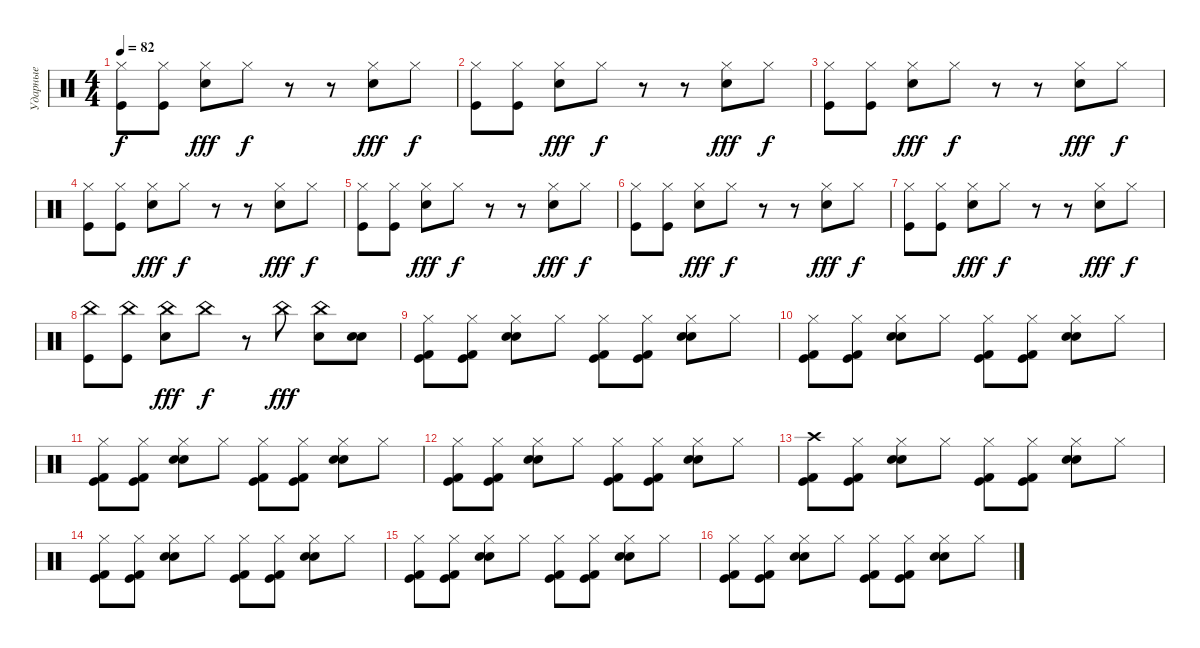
\track ("Ударные" "Ударные") {instrument percussion}
\staff {score}
\articulation defaults
\ts (4 4)
\tempo 82
\clef neutral
\ks c
("Hi-Hat (closed)" "Kick (hit)").8{dy f} ("Hi-Hat (closed)" "Kick (hit)").8 ("Hi-Hat (closed)" "Hand Clap (hit)").8{dy fff} "Hi-Hat (closed)".8{dy f} r.8 r.8 ("Hi-Hat (closed)" "Hand Clap (hit)").8{dy fff} "Hi-Hat (closed)".8{dy f} |
("Hi-Hat (closed)" "Kick (hit)").8 ("Hi-Hat (closed)" "Kick (hit)").8 ("Hi-Hat (closed)" "Hand Clap (hit)").8{dy fff} "Hi-Hat (closed)".8{dy f} r.8 r.8 ("Hi-Hat (closed)" "Hand Clap (hit)").8{dy fff} "Hi-Hat (closed)".8{dy f} |
("Hi-Hat (closed)" "Kick (hit)").8 ("Hi-Hat (closed)" "Kick (hit)").8 ("Hi-Hat (closed)" "Hand Clap (hit)").8{dy fff} "Hi-Hat (closed)".8{dy f} r.8 r.8 ("Hi-Hat (closed)" "Hand Clap (hit)").8{dy fff} "Hi-Hat (closed)".8{dy f} |
("Hi-Hat (closed)" "Kick (hit)").8 ("Hi-Hat (closed)" "Kick (hit)").8 ("Hi-Hat (closed)" "Hand Clap (hit)").8{dy fff} "Hi-Hat (closed)".8{dy f} r.8 r.8 ("Hi-Hat (closed)" "Hand Clap (hit)").8{dy fff} "Hi-Hat (closed)".8{dy f} |
("Hi-Hat (closed)" "Kick (hit)").8 ("Hi-Hat (closed)" "Kick (hit)").8 ("Hi-Hat (closed)" "Hand Clap (hit)").8{dy fff} "Hi-Hat (closed)".8{dy f} r.8 r.8 ("Hi-Hat (closed)" "Hand Clap (hit)").8{dy fff} "Hi-Hat (closed)".8{dy f} |
("Hi-Hat (closed)" "Kick (hit)").8 ("Hi-Hat (closed)" "Kick (hit)").8 ("Hi-Hat (closed)" "Hand Clap (hit)").8{dy fff} "Hi-Hat (closed)".8{dy f} r.8 r.8 ("Hi-Hat (closed)" "Hand Clap (hit)").8{dy fff} "Hi-Hat (closed)".8{dy f} |
("Hi-Hat (closed)" "Kick (hit)").8 ("Hi-Hat (closed)" "Kick (hit)").8 ("Hi-Hat (closed)" "Hand Clap (hit)").8{dy fff} "Hi-Hat (closed)".8{dy f} r.8 r.8 ("Hi-Hat (closed)" "Hand Clap (hit)").8{dy fff} "Hi-Hat (closed)".8{dy f} |
("China (hit)" "Kick (hit)").8 ("China (hit)" "Kick (hit)").8 ("China (hit)" "Hand Clap (hit)").8{dy fff} "China (hit)".8{dy f} r.8 "China (hit)".8{dy fff} ("China (hit)" "Hand Clap (hit)").8 ("Electric Snare (hit)" "Snare (hit) 2").8 |
("Hi-Hat (closed)" "Kick (hit) 2" "Kick (hit)").8 ("Hi-Hat (closed)" "Kick (hit) 2" "Kick (hit)").8 ("Hi-Hat (closed)" "Electric Snare (hit)" "Snare (hit) 2").8 "Hi-Hat (closed)".8 ("Hi-Hat (closed)" "Kick (hit) 2" "Kick (hit)").8 ("Hi-Hat (closed)" "Kick (hit) 2" "Kick (hit)").8 ("Hi-Hat (closed)" "Electric Snare (hit)" "Snare (hit) 2").8 "Hi-Hat (closed)".8 |
("Hi-Hat (closed)" "Kick (hit) 2" "Kick (hit)").8 ("Hi-Hat (closed)" "Kick (hit) 2" "Kick (hit)").8 ("Hi-Hat (closed)" "Electric Snare (hit)" "Snare (hit) 2").8 "Hi-Hat (closed)".8 ("Hi-Hat (closed)" "Kick (hit) 2" "Kick (hit)").8 ("Hi-Hat (closed)" "Kick (hit) 2" "Kick (hit)").8 ("Hi-Hat (closed)" "Electric Snare (hit)" "Snare (hit) 2").8 "Hi-Hat (closed)".8 |
("Hi-Hat (closed)" "Kick (hit) 2" "Kick (hit)").8 ("Hi-Hat (closed)" "Kick (hit) 2" "Kick (hit)").8 ("Hi-Hat (closed)" "Electric Snare (hit)" "Snare (hit) 2").8 "Hi-Hat (closed)".8 ("Hi-Hat (closed)" "Kick (hit) 2" "Kick (hit)").8 ("Hi-Hat (closed)" "Kick (hit) 2" "Kick (hit)").8 ("Hi-Hat (closed)" "Electric Snare (hit)" "Snare (hit) 2").8 "Hi-Hat (closed)".8 |
("Hi-Hat (closed)" "Kick (hit) 2" "Kick (hit)").8 ("Hi-Hat (closed)" "Kick (hit) 2" "Kick (hit)").8 ("Hi-Hat (closed)" "Electric Snare (hit)" "Snare (hit) 2").8 "Hi-Hat (closed)".8 ("Hi-Hat (closed)" "Kick (hit) 2" "Kick (hit)").8 ("Hi-Hat (closed)" "Kick (hit) 2" "Kick (hit)").8 ("Hi-Hat (closed)" "Electric Snare (hit)" "Snare (hit) 2").8 "Hi-Hat (closed)".8 |
("Crash high (hit)" "Kick (hit) 2" "Kick (hit)").8 ("Hi-Hat (closed)" "Kick (hit) 2" "Kick (hit)").8 ("Hi-Hat (closed)" "Electric Snare (hit)" "Snare (hit) 2").8 "Hi-Hat (closed)".8 ("Hi-Hat (closed)" "Kick (hit) 2" "Kick (hit)").8 ("Hi-Hat (closed)" "Kick (hit) 2" "Kick (hit)").8 ("Hi-Hat (closed)" "Electric Snare (hit)" "Snare (hit) 2").8 "Hi-Hat (closed)".8 |
("Hi-Hat (closed)" "Kick (hit) 2" "Kick (hit)").8 ("Hi-Hat (closed)" "Kick (hit) 2" "Kick (hit)").8 ("Hi-Hat (closed)" "Electric Snare (hit)" "Snare (hit) 2").8 "Hi-Hat (closed)".8 ("Hi-Hat (closed)" "Kick (hit) 2" "Kick (hit)").8 ("Hi-Hat (closed)" "Kick (hit) 2" "Kick (hit)").8 ("Hi-Hat (closed)" "Electric Snare (hit)" "Snare (hit) 2").8 "Hi-Hat (closed)".8 |
("Hi-Hat (closed)" "Kick (hit) 2" "Kick (hit)").8 ("Hi-Hat (closed)" "Kick (hit) 2" "Kick (hit)").8 ("Hi-Hat (closed)" "Electric Snare (hit)" "Snare (hit) 2").8 "Hi-Hat (closed)".8 ("Hi-Hat (closed)" "Kick (hit) 2" "Kick (hit)").8 ("Hi-Hat (closed)" "Kick (hit) 2" "Kick (hit)").8 ("Hi-Hat (closed)" "Electric Snare (hit)" "Snare (hit) 2").8 "Hi-Hat (closed)".8 |
("Hi-Hat (closed)" "Kick (hit) 2" "Kick (hit)").8 ("Hi-Hat (closed)" "Kick (hit) 2" "Kick (hit)").8 ("Hi-Hat (closed)" "Electric Snare (hit)" "Snare (hit) 2").8 "Hi-Hat (closed)".8 ("Hi-Hat (closed)" "Kick (hit) 2" "Kick (hit)").8 ("Hi-Hat (closed)" "Kick (hit) 2" "Kick (hit)").8 ("Hi-Hat (closed)" "Electric Snare (hit)" "Snare (hit) 2").8 "Hi-Hat (closed)".8
